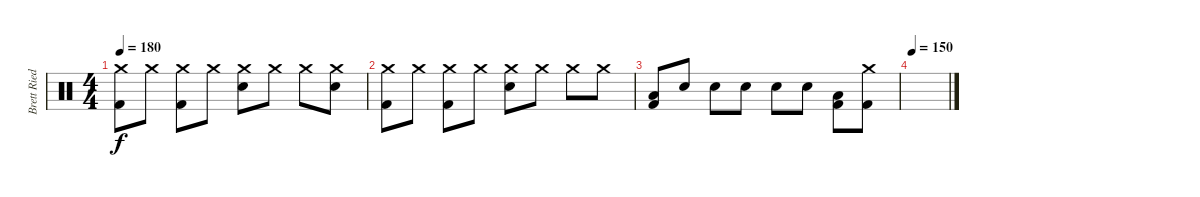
\track ("Brett Ried" "Brett Ried") {instrument percussion}
\staff {score}
\articulation defaults
\ts (4 4)
\tempo 180
\clef neutral
\ks c
("Crash medium (hit)" "Kick (hit) 2").8{dy f} "Crash medium (hit)".8 ("Crash medium (hit)" "Kick (hit) 2").8 "Crash medium (hit)".8 ("Crash medium (hit)" "Snare (hit) 2").8 "Crash medium (hit)".8 "Crash medium (hit)".8 ("Crash medium (hit)" "Snare (hit) 2").8 |
("Crash medium (hit)" "Kick (hit) 2").8 "Crash medium (hit)".8 ("Crash medium (hit)" "Kick (hit) 2").8 "Crash medium (hit)".8 ("Crash medium (hit)" "Snare (hit) 2").8 "Crash medium (hit)".8 "Crash medium (hit)".8 "Crash medium (hit)".8 |
("Low Floor Tom (hit)" "Kick (hit) 2").8 "Snare (hit) 2".8 "Snare (hit) 2".8 "Snare (hit) 2".8 "Snare (hit) 2".8 "Snare (hit) 2".8 ("Low Floor Tom (hit)" "Kick (hit) 2").8 ("Crash medium (hit)" "Kick (hit) 2").8 |
\tempo 150
